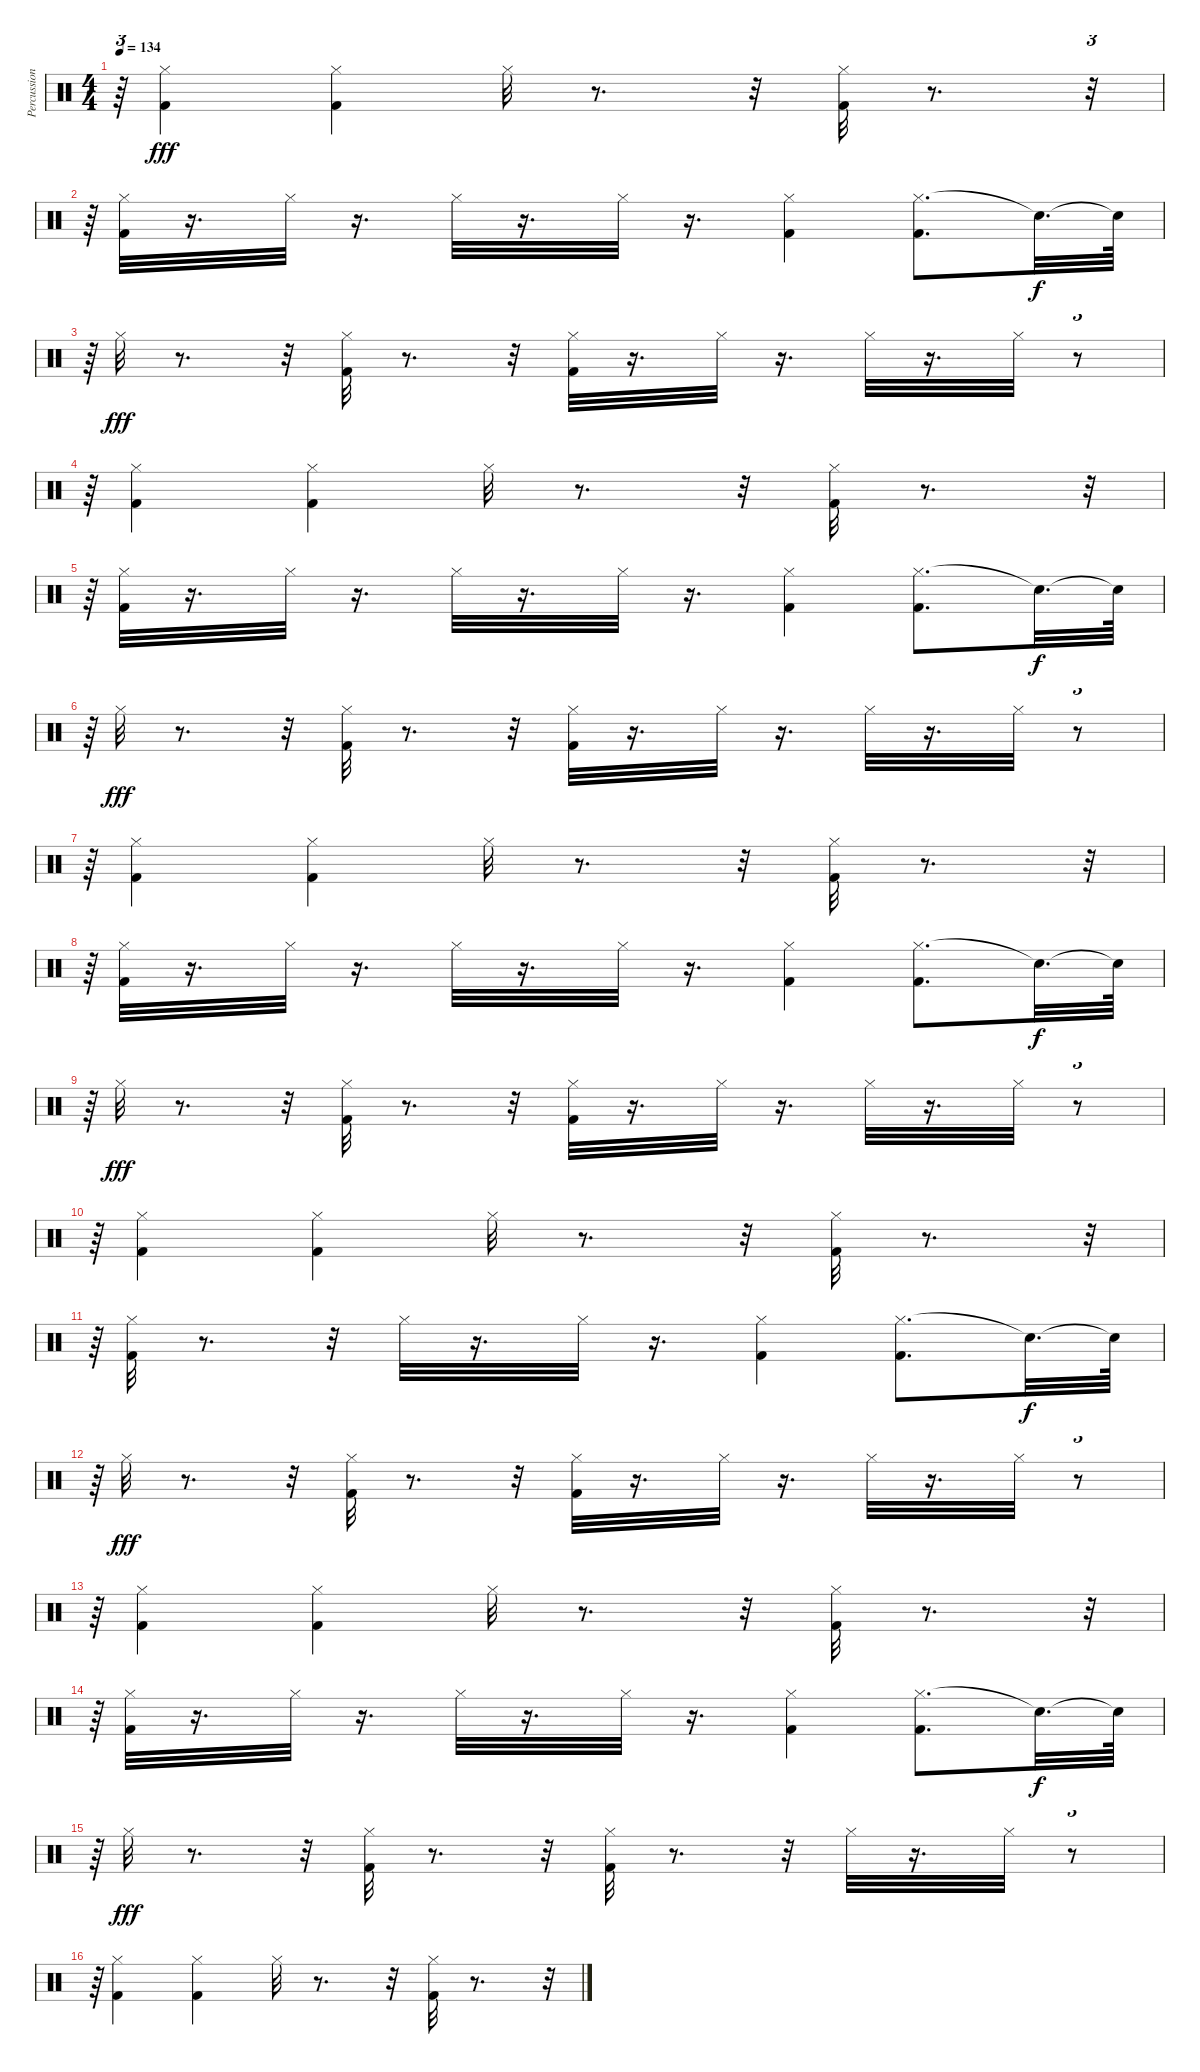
\track ("Percussioni" "Percussion") {instrument percussion}
\staff {score}
\articulation defaults
\ts (4 4)
\tempo 134
\clef neutral
\ks c
r.64{tu (3 2) dy fff} ("Hi-Hat (closed)" "Kick (hit) 2").4 ("Hi-Hat (closed)" "Kick (hit) 2").4 "Hi-Hat (closed)".32 r.8{d} r.32 ("Hi-Hat (closed)" "Kick (hit) 2").32 r.8{d} r.32{tu (3 2)} |
r.64{tu (3 2)} ("Hi-Hat (closed)" "Kick (hit) 2").32 r.16{d} "Hi-Hat (closed)".32 r.16{d} "Hi-Hat (closed)".32 r.16{d} "Hi-Hat (closed)".32 r.16{d} ("Hi-Hat (closed)" "Kick (hit) 2").4 ("Hi-Hat (closed)" "Kick (hit) 2").8{d} "Snare (hit)"{t}.32{d dy f} "Snare (hit)"{t}.64 |
r.64{tu (3 2)} "Hi-Hat (closed)".32{dy fff} r.8{d} r.32 ("Hi-Hat (closed)" "Kick (hit) 2").32 r.8{d} r.32 ("Hi-Hat (closed)" "Kick (hit) 2").32 r.16{d} "Hi-Hat (closed)".32 r.16{d} "Hi-Hat (closed)".32 r.16{d} "Hi-Hat (closed)".32 r.8{tu (3 2)} |
r.64{tu (3 2)} ("Hi-Hat (closed)" "Kick (hit) 2").4 ("Hi-Hat (closed)" "Kick (hit) 2").4 "Hi-Hat (closed)".32 r.8{d} r.32 ("Hi-Hat (closed)" "Kick (hit) 2").32 r.8{d} r.32{tu (3 2)} |
r.64{tu (3 2)} ("Hi-Hat (closed)" "Kick (hit) 2").32 r.16{d} "Hi-Hat (closed)".32 r.16{d} "Hi-Hat (closed)".32 r.16{d} "Hi-Hat (closed)".32 r.16{d} ("Hi-Hat (closed)" "Kick (hit) 2").4 ("Hi-Hat (closed)" "Kick (hit) 2").8{d} "Snare (hit)"{t}.32{d dy f} "Snare (hit)"{t}.64 |
r.64{tu (3 2)} "Hi-Hat (closed)".32{dy fff} r.8{d} r.32 ("Hi-Hat (closed)" "Kick (hit) 2").32 r.8{d} r.32 ("Hi-Hat (closed)" "Kick (hit) 2").32 r.16{d} "Hi-Hat (closed)".32 r.16{d} "Hi-Hat (closed)".32 r.16{d} "Hi-Hat (closed)".32 r.8{tu (3 2)} |
r.64{tu (3 2)} ("Hi-Hat (closed)" "Kick (hit) 2").4 ("Hi-Hat (closed)" "Kick (hit) 2").4 "Hi-Hat (closed)".32 r.8{d} r.32 ("Hi-Hat (closed)" "Kick (hit) 2").32 r.8{d} r.32{tu (3 2)} |
r.64{tu (3 2)} ("Hi-Hat (closed)" "Kick (hit) 2").32 r.16{d} "Hi-Hat (closed)".32 r.16{d} "Hi-Hat (closed)".32 r.16{d} "Hi-Hat (closed)".32 r.16{d} ("Hi-Hat (closed)" "Kick (hit) 2").4 ("Hi-Hat (closed)" "Kick (hit) 2").8{d} "Snare (hit)"{t}.32{d dy f} "Snare (hit)"{t}.64 |
r.64{tu (3 2)} "Hi-Hat (closed)".32{dy fff} r.8{d} r.32 ("Hi-Hat (closed)" "Kick (hit) 2").32 r.8{d} r.32 ("Hi-Hat (closed)" "Kick (hit) 2").32 r.16{d} "Hi-Hat (closed)".32 r.16{d} "Hi-Hat (closed)".32 r.16{d} "Hi-Hat (closed)".32 r.8{tu (3 2)} |
r.64{tu (3 2)} ("Hi-Hat (closed)" "Kick (hit) 2").4 ("Hi-Hat (closed)" "Kick (hit) 2").4 "Hi-Hat (closed)".32 r.8{d} r.32 ("Hi-Hat (closed)" "Kick (hit) 2").32 r.8{d} r.32{tu (3 2)} |
r.64{tu (3 2)} ("Hi-Hat (closed)" "Kick (hit) 2").32 r.8{d} r.32 "Hi-Hat (closed)".32 r.16{d} "Hi-Hat (closed)".32 r.16{d} ("Hi-Hat (closed)" "Kick (hit) 2").4 ("Hi-Hat (closed)" "Kick (hit) 2").8{d} "Snare (hit)"{t}.32{d dy f} "Snare (hit)"{t}.64 |
r.64{tu (3 2)} "Hi-Hat (closed)".32{dy fff} r.8{d} r.32 ("Hi-Hat (closed)" "Kick (hit) 2").32 r.8{d} r.32 ("Hi-Hat (closed)" "Kick (hit) 2").32 r.16{d} "Hi-Hat (closed)".32 r.16{d} "Hi-Hat (closed)".32 r.16{d} "Hi-Hat (closed)".32 r.8{tu (3 2)} |
r.64{tu (3 2)} ("Hi-Hat (closed)" "Kick (hit) 2").4 ("Hi-Hat (closed)" "Kick (hit) 2").4 "Hi-Hat (closed)".32 r.8{d} r.32 ("Hi-Hat (closed)" "Kick (hit) 2").32 r.8{d} r.32{tu (3 2)} |
r.64{tu (3 2)} ("Hi-Hat (closed)" "Kick (hit) 2").32 r.16{d} "Hi-Hat (closed)".32 r.16{d} "Hi-Hat (closed)".32 r.16{d} "Hi-Hat (closed)".32 r.16{d} ("Hi-Hat (closed)" "Kick (hit) 2").4 ("Hi-Hat (closed)" "Kick (hit) 2").8{d} "Snare (hit)"{t}.32{d dy f} "Snare (hit)"{t}.64 |
r.64{tu (3 2)} "Hi-Hat (closed)".32{dy fff} r.8{d} r.32 ("Hi-Hat (closed)" "Kick (hit) 2").32 r.8{d} r.32 ("Hi-Hat (closed)" "Kick (hit) 2").32 r.8{d} r.32 "Hi-Hat (closed)".32 r.16{d} "Hi-Hat (closed)".32 r.8{tu (3 2)} |
r.64{tu (3 2)} ("Hi-Hat (closed)" "Kick (hit) 2").4 ("Hi-Hat (closed)" "Kick (hit) 2").4 "Hi-Hat (closed)".32 r.8{d} r.32 ("Hi-Hat (closed)" "Kick (hit) 2").32 r.8{d} r.32{tu (3 2)}
